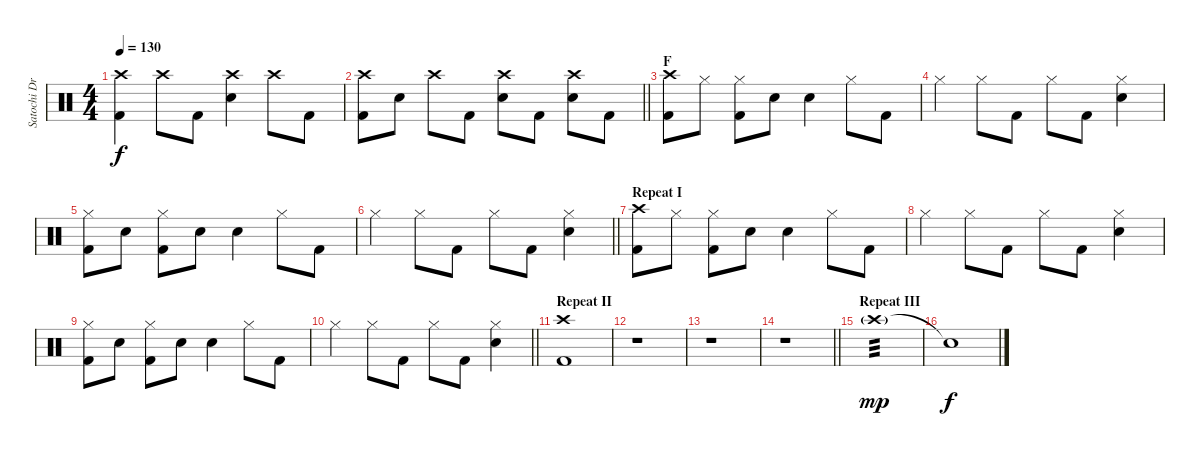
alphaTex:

\track ("Satochi Drums" "Satochi Dr") {instrument percussion}
\staff {score}
\articulation defaults
\ts (4 4)
\tempo 130
\clef neutral
\ks c
("Crash high (hit)" "Kick (hit) 2").4{dy f} "Crash high (hit)".8 "Kick (hit) 2".8 ("Crash high (hit)" "Snare (hit) 2").4 "Crash high (hit)".8 "Kick (hit) 2".8 |
\barLineRight lightlight
("Crash high (hit)" "Kick (hit) 2").8 "Snare (hit) 2".8 "Crash high (hit)".8 "Kick (hit) 2".8 ("Crash high (hit)" "Snare (hit) 2").8 "Kick (hit) 2".8 ("Crash high (hit)" "Snare (hit) 2").8 "Kick (hit) 2".8 |
\section ("" "F")
("Crash high (hit)" "Kick (hit) 2").8 "Hi-Hat (closed)".8 ("Hi-Hat (closed)" "Kick (hit) 2").8 "Snare (hit) 2".8 "Snare (hit) 2".4 "Hi-Hat (closed)".8 "Kick (hit) 2".8 |
"Hi-Hat (closed)".4 "Hi-Hat (closed)".8 "Kick (hit) 2".8 "Hi-Hat (closed)".8 "Kick (hit) 2".8 ("Hi-Hat (closed)" "Snare (hit) 2").4 |
("Hi-Hat (closed)" "Kick (hit) 2").8 "Snare (hit) 2".8 ("Hi-Hat (closed)" "Kick (hit) 2").8 "Snare (hit) 2".8 "Snare (hit) 2".4 "Hi-Hat (closed)".8 "Kick (hit) 2".8 |
\barLineRight lightlight "Hi-Hat (closed)".4 "Hi-Hat (closed)".8 "Kick (hit) 2".8 "Hi-Hat (closed)".8 "Kick (hit) 2".8
("Hi-Hat (closed)" "Snare (hit) 2").4 |
\section ("" "Repeat I")
("Crash high (hit)" "Kick (hit) 2").8 "Hi-Hat (closed)".8 ("Hi-Hat (closed)" "Kick (hit) 2").8 "Snare (hit) 2".8 "Snare (hit) 2".4 "Hi-Hat (closed)".8 "Kick (hit) 2".8 |
"Hi-Hat (closed)".4 "Hi-Hat (closed)".8 "Kick (hit) 2".8 "Hi-Hat (closed)".8 "Kick (hit) 2".8 ("Hi-Hat (closed)" "Snare (hit) 2").4 |
("Hi-Hat (closed)" "Kick (hit) 2").8 "Snare (hit) 2".8 ("Hi-Hat (closed)" "Kick (hit) 2").8 "Snare (hit) 2".8 "Snare (hit) 2".4 "Hi-Hat (closed)".8 "Kick (hit) 2".8 |
\barLineRight lightlight "Hi-Hat (closed)".4 "Hi-Hat (closed)".8 "Kick (hit) 2".8 "Hi-Hat (closed)".8 "Kick (hit) 2".8
("Hi-Hat (closed)" "Snare (hit) 2").4 |
\section ("" "Repeat II")
("Crash high (hit)" "Kick (hit) 2").1 |
r.1 |
r.1 |
\barLineRight lightlight
r.1 |
\section ("" "Repeat III")
"Crash high (hit)"{g}.1{tp 3 dy mp} |
"Snare (hit)"{t}.1{dy f}
